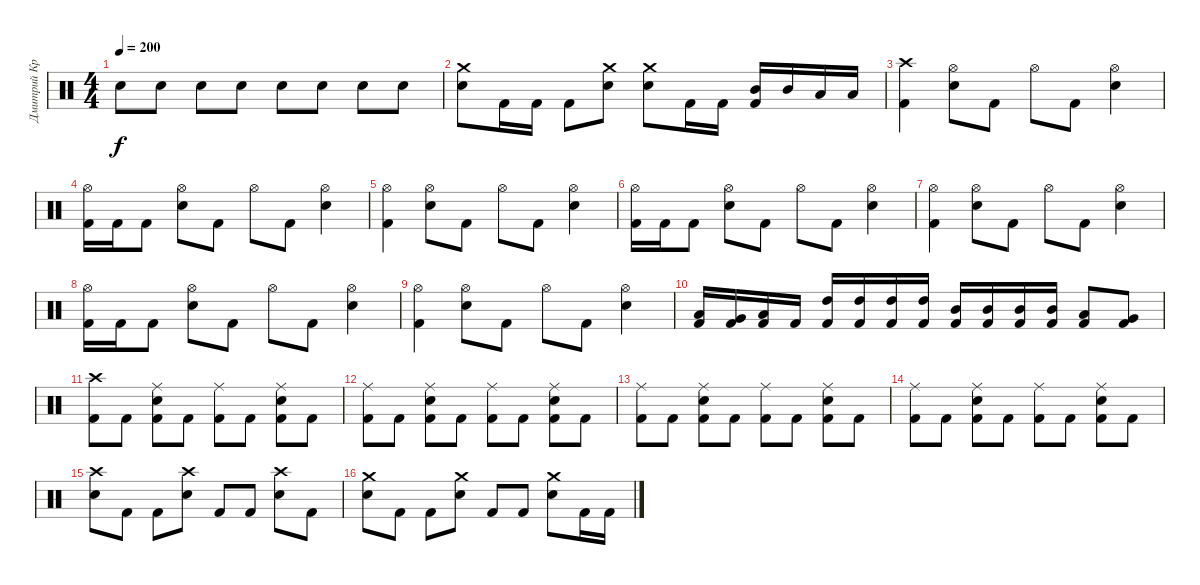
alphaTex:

\track ("Дмитрий Кривенков" "Дмитрий Кр") {instrument percussion}
\staff {score}
\articulation defaults
\ts (4 4)
\tempo 200
\clef neutral
\ks c "Electric Snare (hit)".8{dy f} "Electric Snare (hit)".8 "Electric Snare (hit)".8 "Electric Snare (hit)".8 "Electric Snare (hit)".8 "Electric Snare (hit)".8 "Electric Snare (hit)".8 "Electric Snare (hit)".8
|
("Crash medium (hit)" "Electric Snare (hit)").8 "Kick (hit) 2".16 "Kick (hit) 2".16 "Kick (hit) 2".8 ("Crash medium (hit)" "Electric Snare (hit)").8 ("Crash medium (hit)" "Electric Snare (hit)").8 "Kick (hit) 2".16 "Kick (hit) 2".16 ("Mid Tom (hit)" "Kick (hit) 2").16 "Mid Tom (hit)".16 "Low Tom (hit)".16 "Low Tom (hit)".16 |
("Crash high (hit)" "Kick (hit) 2").4 ("Hi-Hat (open)" "Electric Snare (hit)").8 "Kick (hit) 2".8 "Hi-Hat (open)".8 "Kick (hit) 2".8 ("Hi-Hat (open)" "Electric Snare (hit)").4 |
("Hi-Hat (open)" "Kick (hit) 2").16 "Kick (hit) 2".16 "Kick (hit) 2".8 ("Hi-Hat (open)" "Electric Snare (hit)").8 "Kick (hit) 2".8 "Hi-Hat (open)".8 "Kick (hit) 2".8 ("Hi-Hat (open)" "Electric Snare (hit)").4 |
("Hi-Hat (open)" "Kick (hit) 2").4 ("Hi-Hat (open)" "Electric Snare (hit)").8 "Kick (hit) 2".8 "Hi-Hat (open)".8 "Kick (hit) 2".8 ("Hi-Hat (open)" "Electric Snare (hit)").4 |
("Hi-Hat (open)" "Kick (hit) 2").16 "Kick (hit) 2".16 "Kick (hit) 2".8 ("Hi-Hat (open)" "Electric Snare (hit)").8 "Kick (hit) 2".8 "Hi-Hat (open)".8 "Kick (hit) 2".8 ("Hi-Hat (open)" "Electric Snare (hit)").4 |
("Hi-Hat (open)" "Kick (hit) 2").4 ("Hi-Hat (open)" "Electric Snare (hit)").8 "Kick (hit) 2".8 "Hi-Hat (open)".8 "Kick (hit) 2".8 ("Hi-Hat (open)" "Electric Snare (hit)").4 |
("Hi-Hat (open)" "Kick (hit) 2").16 "Kick (hit) 2".16 "Kick (hit) 2".8 ("Hi-Hat (open)" "Electric Snare (hit)").8 "Kick (hit) 2".8 "Hi-Hat (open)".8 "Kick (hit) 2".8 ("Hi-Hat (open)" "Electric Snare (hit)").4 |
("Hi-Hat (open)" "Kick (hit) 2").4 ("Hi-Hat (open)" "Electric Snare (hit)").8 "Kick (hit) 2".8 "Hi-Hat (open)".8 "Kick (hit) 2".8 ("Hi-Hat (open)" "Electric Snare (hit)").4 |
("Low Tom (hit)" "Kick (hit) 2").16 ("Very Low Tom (hit)" "Kick (hit) 2").16 ("Low Floor Tom (hit)" "Kick (hit) 2").16 "Kick (hit) 2".16 ("High Tom (hit)" "Kick (hit) 2").16 ("High Tom (hit)" "Kick (hit) 2").16 ("High Tom (hit)" "Kick (hit) 2").16 ("High Tom (hit)" "Kick (hit) 2").16 ("Mid Tom (hit)" "Kick (hit) 2").16 ("Mid Tom (hit)" "Kick (hit) 2").16 ("Mid Tom (hit)" "Kick (hit) 2").16 ("Mid Tom (hit)" "Kick (hit) 2").16 ("Low Tom (hit)" "Kick (hit) 2").8 ("Very Low Tom (hit)" "Kick (hit) 2").8 |
("Crash high (hit)" "Kick (hit) 2").8 "Kick (hit) 2".8 ("Ride (middle)" "Electric Snare (hit)" "Kick (hit) 2").8 "Kick (hit) 2".8 ("Ride (middle)" "Kick (hit) 2").8 "Kick (hit) 2".8 ("Ride (middle)" "Electric Snare (hit)" "Kick (hit) 2").8 "Kick (hit) 2".8 |
("Ride (middle)" "Kick (hit) 2").8 "Kick (hit) 2".8 ("Ride (middle)" "Electric Snare (hit)" "Kick (hit) 2").8 "Kick (hit) 2".8 ("Ride (middle)" "Kick (hit) 2").8 "Kick (hit) 2".8 ("Ride (middle)" "Electric Snare (hit)" "Kick (hit) 2").8 "Kick (hit) 2".8 |
("Ride (middle)" "Kick (hit) 2").8 "Kick (hit) 2".8 ("Ride (middle)" "Electric Snare (hit)" "Kick (hit) 2").8 "Kick (hit) 2".8 ("Ride (middle)" "Kick (hit) 2").8 "Kick (hit) 2".8 ("Ride (middle)" "Electric Snare (hit)" "Kick (hit) 2").8 "Kick (hit) 2".8 |
("Ride (middle)" "Kick (hit) 2").8 "Kick (hit) 2".8 ("Ride (middle)" "Electric Snare (hit)" "Kick (hit) 2").8 "Kick (hit) 2".8 ("Ride (middle)" "Kick (hit) 2").8 "Kick (hit) 2".8 ("Ride (middle)" "Electric Snare (hit)" "Kick (hit) 2").8 "Kick (hit) 2".8 |
("Crash high (hit)" "Electric Snare (hit)").8 "Kick (hit) 2".8 "Kick (hit) 2".8 ("Crash high (hit)" "Electric Snare (hit)").8 "Kick (hit) 2".8 "Kick (hit) 2".8 ("Crash high (hit)" "Electric Snare (hit)").8 "Kick (hit) 2".8 |
("Crash medium (hit)" "Electric Snare (hit)").8 "Kick (hit) 2".8 "Kick (hit) 2".8 ("Crash medium (hit)" "Electric Snare (hit)").8 "Kick (hit) 2".8 "Kick (hit) 2".8 ("Crash medium (hit)" "Electric Snare (hit)").8 "Kick (hit) 2".16 "Kick (hit) 2".16
